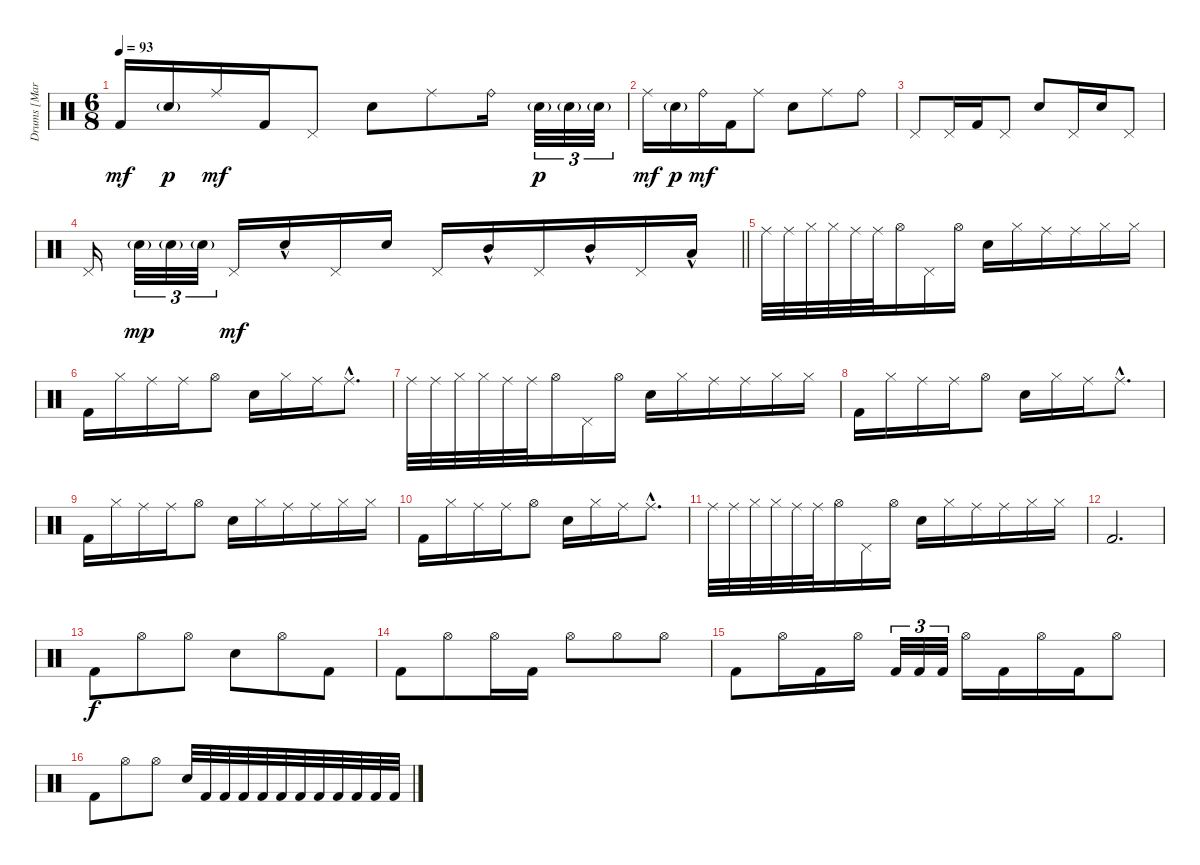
\track ("Drums [Martin Lopez]" "Drums [Mar") {instrument percussion}
\staff {score}
\articulation defaults
\ts (6 8)
\tempo 93
\clef neutral
\ks c "Kick (hit) 2".16{dy mf} "Snare (hit) 2"{g}.16{dy p} "Ride (middle)".16{dy mf} "Kick (hit) 2".16 "Pedal Hi-Hat (hit)".8 "Snare (hit) 2".8 "Ride (middle)".8 "Ride (bell)".16{beam splitsecondary} "Snare (hit) 2"{g}.32{tu (3 2) dy p} "Snare (hit) 2"{g}.32{tu (3 2)} "Snare (hit) 2"{g}.32{tu (3 2)}
|
"Ride (middle)".16{dy mf} "Snare (hit) 2"{g}.16{dy p} "Ride (bell)".16{dy mf} "Kick (hit) 2".16 "Ride (middle)".8 "Snare (hit) 2".8 "Ride (middle)".8 "Ride (bell)".8 |
"Pedal Hi-Hat (hit)".8 "Pedal Hi-Hat (hit)".16 "Kick (hit) 2".16 "Pedal Hi-Hat (hit)".8 "Snare (hit) 2".8 "Pedal Hi-Hat (hit)".16 "Snare (hit) 2".16 "Pedal Hi-Hat (hit)".8 |
\barLineRight lightlight "Pedal Hi-Hat (hit)".16{beam splitsecondary} "Snare (hit) 2"{g}.32{tu (3 2) dy mp} "Snare (hit) 2"{g}.32{tu (3 2)} "Snare (hit) 2"{g}.32{tu (3 2) beam splitsecondary} "Pedal Hi-Hat (hit)".16{dy mf} "Snare (hit) 2"{hac}.16 "Pedal Hi-Hat (hit)".16 "Snare (hit) 2".16 "Pedal Hi-Hat (hit)".16 "Mid Tom (hit)"{hac}.16 "Pedal Hi-Hat (hit)".16 "Mid Tom (hit)"{hac}.16 "Pedal Hi-Hat (hit)".16 "Low Tom (hit)"{hac}.16
|
"Ride (middle)".32 "Ride (middle)".32 "Hi-Hat (closed)".32 "Hi-Hat (closed)".32 "Ride (middle)".32 "Ride (middle)".32 "Hi-Hat (open)".16 "Pedal Hi-Hat (hit)".16 "Hi-Hat (open)".16 "Snare (hit) 2".16 "Hi-Hat (closed)".16 "Ride (middle)".16 "Ride (middle)".16 "Hi-Hat (closed)".16 "Hi-Hat (closed)".16 |
"Kick (hit) 2".16 "Hi-Hat (closed)".16 "Ride (middle)".16 "Ride (middle)".16 "Hi-Hat (open)".8 "Snare (hit) 2".16 "Hi-Hat (closed)".16 "Ride (middle)".16 "Ride (middle)"{hac}.8{d} |
"Ride (middle)".32 "Ride (middle)".32 "Hi-Hat (closed)".32 "Hi-Hat (closed)".32 "Ride (middle)".32 "Ride (middle)".32 "Hi-Hat (open)".16 "Pedal Hi-Hat (hit)".16 "Hi-Hat (open)".16 "Snare (hit) 2".16 "Hi-Hat (closed)".16 "Ride (middle)".16 "Ride (middle)".16 "Hi-Hat (closed)".16 "Hi-Hat (closed)".16 |
"Kick (hit) 2".16 "Hi-Hat (closed)".16 "Ride (middle)".16 "Ride (middle)".16 "Hi-Hat (open)".8 "Snare (hit) 2".16 "Hi-Hat (closed)".16 "Ride (middle)".16 "Ride (middle)"{hac}.8{d} |
"Kick (hit) 2".16 "Hi-Hat (closed)".16 "Ride (middle)".16 "Ride (middle)".16 "Hi-Hat (open)".8 "Snare (hit) 2".16 "Hi-Hat (closed)".16 "Ride (middle)".16 "Ride (middle)".16 "Hi-Hat (closed)".16 "Hi-Hat (closed)".16 |
"Kick (hit) 2".16 "Hi-Hat (closed)".16 "Ride (middle)".16 "Ride (middle)".16 "Hi-Hat (open)".8 "Snare (hit) 2".16 "Hi-Hat (closed)".16 "Ride (middle)".16 "Ride (middle)"{hac}.8{d} |
"Ride (middle)".32 "Ride (middle)".32 "Hi-Hat (closed)".32 "Hi-Hat (closed)".32 "Ride (middle)".32 "Ride (middle)".32 "Hi-Hat (open)".16 "Pedal Hi-Hat (hit)".16 "Hi-Hat (open)".16 "Snare (hit) 2".16 "Hi-Hat (closed)".16 "Ride (middle)".16 "Ride (middle)".16 "Hi-Hat (closed)".16 "Hi-Hat (closed)".16 |
"Kick (hit) 2".2{d} |
"Kick (hit) 2".8{dy f} "Hi-Hat (open)".8 "Hi-Hat (open)".8 "Snare (hit) 2".8 "Hi-Hat (open)".8 "Kick (hit) 2".8 |
"Kick (hit) 2".8 "Hi-Hat (open)".8 "Hi-Hat (open)".16 "Kick (hit) 2".16 "Hi-Hat (open)".8 "Hi-Hat (open)".8 "Hi-Hat (open)".8 |
"Kick (hit) 2".8 "Hi-Hat (open)".16 "Kick (hit) 2".16 "Hi-Hat (open)".16{beam splitsecondary} "Kick (hit) 2".32{tu (3 2)} "Kick (hit) 2".32{tu (3 2)} "Kick (hit) 2".32{tu (3 2)} "Hi-Hat (open)".16 "Kick (hit) 2".16 "Hi-Hat (open)".16 "Kick (hit) 2".16 "Hi-Hat (open)".8 |
"Kick (hit) 2".8 "Hi-Hat (open)".8 "Hi-Hat (open)".8 "Snare (hit) 2".32 "Kick (hit) 2".32 "Kick (hit) 2".32 "Kick (hit) 2".32 "Kick (hit) 2".32 "Kick (hit) 2".32 "Kick (hit) 2".32 "Kick (hit) 2".32 "Kick (hit) 2".32 "Kick (hit) 2".32 "Kick (hit) 2".32 "Kick (hit) 2".32
